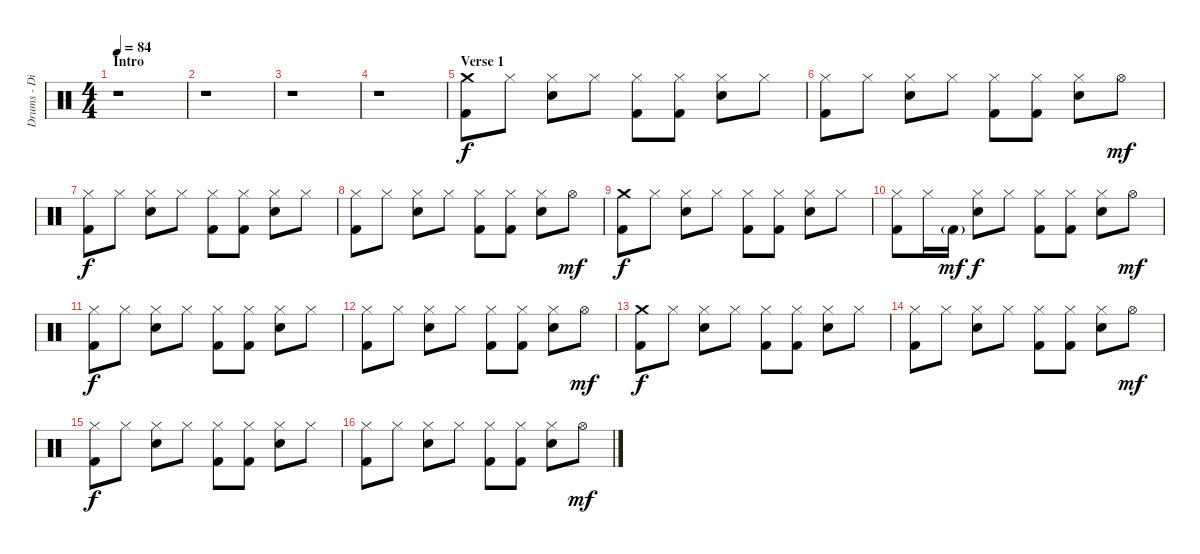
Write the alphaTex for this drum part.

\track ("Drums - Dino Campanella" "Drums - Di") {instrument percussion}
\staff {score}
\articulation defaults
\ts (4 4)
\section ("" "Intro")
\tempo 84
\clef neutral
\ks c
r.1{dy f} |
r.1 |
r.1 |
r.1 |
\section ("" "Verse 1")
("Crash medium (hit)" "Kick (hit) 2").8 "Hi-Hat (closed)".8 ("Hi-Hat (closed)" "Electric Snare (hit)").8 "Hi-Hat (closed)".8 ("Hi-Hat (closed)" "Kick (hit) 2").8 ("Hi-Hat (closed)" "Kick (hit) 2").8 ("Hi-Hat (closed)" "Electric Snare (hit)").8 "Hi-Hat (closed)".8 |
("Hi-Hat (closed)" "Kick (hit) 2").8 "Hi-Hat (closed)".8 ("Hi-Hat (closed)" "Electric Snare (hit)").8 "Hi-Hat (closed)".8 ("Hi-Hat (closed)" "Kick (hit) 2").8 ("Hi-Hat (closed)" "Kick (hit) 2").8 ("Hi-Hat (closed)" "Electric Snare (hit)").8 "Hi-Hat (open)".8{dy mf} |
("Hi-Hat (closed)" "Kick (hit) 2").8{dy f} "Hi-Hat (closed)".8 ("Hi-Hat (closed)" "Electric Snare (hit)").8 "Hi-Hat (closed)".8 ("Hi-Hat (closed)" "Kick (hit) 2").8 ("Hi-Hat (closed)" "Kick (hit) 2").8 ("Hi-Hat (closed)" "Electric Snare (hit)").8 "Hi-Hat (closed)".8 |
("Hi-Hat (closed)" "Kick (hit) 2").8 "Hi-Hat (closed)".8 ("Hi-Hat (closed)" "Electric Snare (hit)").8 "Hi-Hat (closed)".8 ("Hi-Hat (closed)" "Kick (hit) 2").8 ("Hi-Hat (closed)" "Kick (hit) 2").8 ("Hi-Hat (closed)" "Electric Snare (hit)").8 "Hi-Hat (open)".8{dy mf} |
("Crash medium (hit)" "Kick (hit) 2").8{dy f} "Hi-Hat (closed)".8 ("Hi-Hat (closed)" "Electric Snare (hit)").8 "Hi-Hat (closed)".8 ("Hi-Hat (closed)" "Kick (hit) 2").8 ("Hi-Hat (closed)" "Kick (hit) 2").8 ("Hi-Hat (closed)" "Electric Snare (hit)").8 "Hi-Hat (closed)".8 |
("Hi-Hat (closed)" "Kick (hit) 2").8 "Hi-Hat (closed)".16 "Kick (hit) 2"{g}.16{dy mf} ("Hi-Hat (closed)" "Electric Snare (hit)").8{dy f} "Hi-Hat (closed)".8 ("Hi-Hat (closed)" "Kick (hit) 2").8 ("Hi-Hat (closed)" "Kick (hit) 2").8 ("Hi-Hat (closed)" "Electric Snare (hit)").8 "Hi-Hat (open)".8{dy mf} |
("Hi-Hat (closed)" "Kick (hit) 2").8{dy f} "Hi-Hat (closed)".8 ("Hi-Hat (closed)" "Electric Snare (hit)").8 "Hi-Hat (closed)".8 ("Hi-Hat (closed)" "Kick (hit) 2").8 ("Hi-Hat (closed)" "Kick (hit) 2").8 ("Hi-Hat (closed)" "Electric Snare (hit)").8 "Hi-Hat (closed)".8 |
("Hi-Hat (closed)" "Kick (hit) 2").8 "Hi-Hat (closed)".8 ("Hi-Hat (closed)" "Electric Snare (hit)").8 "Hi-Hat (closed)".8 ("Hi-Hat (closed)" "Kick (hit) 2").8 ("Hi-Hat (closed)" "Kick (hit) 2").8 ("Hi-Hat (closed)" "Electric Snare (hit)").8 "Hi-Hat (open)".8{dy mf} |
("Crash medium (hit)" "Kick (hit) 2").8{dy f} "Hi-Hat (closed)".8 ("Hi-Hat (closed)" "Electric Snare (hit)").8 "Hi-Hat (closed)".8 ("Hi-Hat (closed)" "Kick (hit) 2").8 ("Hi-Hat (closed)" "Kick (hit) 2").8 ("Hi-Hat (closed)" "Electric Snare (hit)").8 "Hi-Hat (closed)".8 |
("Hi-Hat (closed)" "Kick (hit) 2").8 "Hi-Hat (closed)".8 ("Hi-Hat (closed)" "Electric Snare (hit)").8 "Hi-Hat (closed)".8 ("Hi-Hat (closed)" "Kick (hit) 2").8 ("Hi-Hat (closed)" "Kick (hit) 2").8 ("Hi-Hat (closed)" "Electric Snare (hit)").8 "Hi-Hat (open)".8{dy mf} |
("Hi-Hat (closed)" "Kick (hit) 2").8{dy f} "Hi-Hat (closed)".8 ("Hi-Hat (closed)" "Electric Snare (hit)").8 "Hi-Hat (closed)".8 ("Hi-Hat (closed)" "Kick (hit) 2").8 ("Hi-Hat (closed)" "Kick (hit) 2").8 ("Hi-Hat (closed)" "Electric Snare (hit)").8 "Hi-Hat (closed)".8 |
("Hi-Hat (closed)" "Kick (hit) 2").8 "Hi-Hat (closed)".8 ("Hi-Hat (closed)" "Electric Snare (hit)").8 "Hi-Hat (closed)".8 ("Hi-Hat (closed)" "Kick (hit) 2").8 ("Hi-Hat (closed)" "Kick (hit) 2").8 ("Hi-Hat (closed)" "Electric Snare (hit)").8 "Hi-Hat (open)".8{dy mf}
